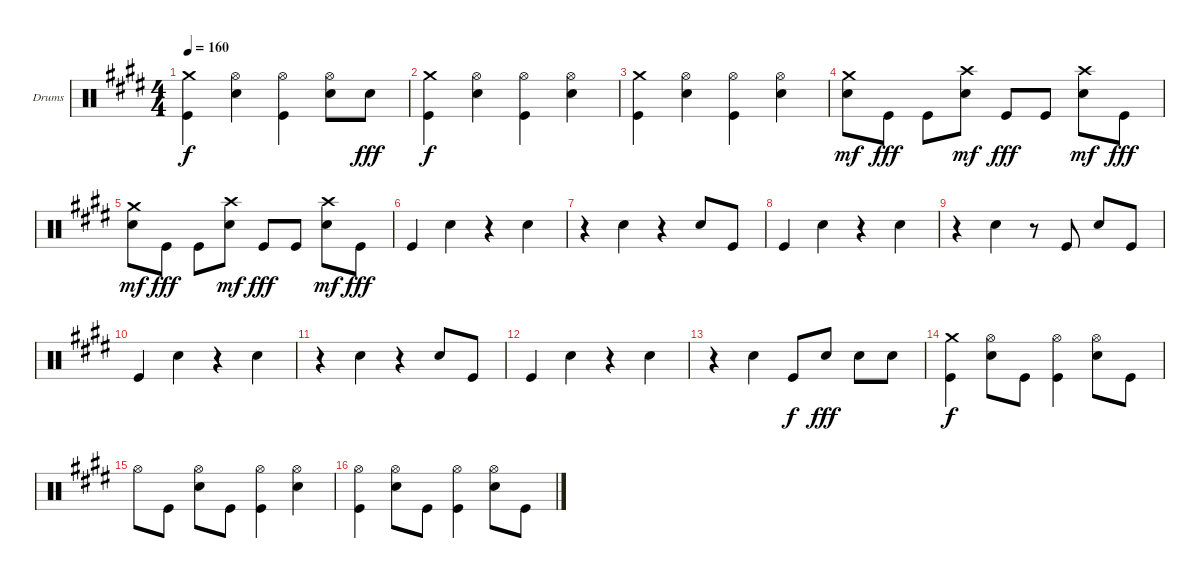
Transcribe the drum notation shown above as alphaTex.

\bracketExtendMode groupsimilarinstruments
\firstSystemTrackNameOrientation horizontal
\otherSystemsTrackNameOrientation horizontal
\track ("Drumkit" "Drums") {instrument percussion}
\staff {score}
\articulation defaults
\ts (4 4)
\tempo 160
\clef neutral
\ks e
("Crash medium (hit)" "Kick (hit)").4{dy f} ("Hi-Hat (open)" "Snare (hit) 2").4 ("Hi-Hat (open)" "Kick (hit)").4 ("Hi-Hat (open)" "Snare (hit) 2").8 "Snare (hit) 2".8{dy fff} |
("Crash medium (hit)" "Kick (hit)").4{dy f} ("Hi-Hat (open)" "Snare (hit) 2").4 ("Hi-Hat (open)" "Kick (hit)").4 ("Hi-Hat (open)" "Snare (hit) 2").4 |
("Crash medium (hit)" "Kick (hit)").4 ("Hi-Hat (open)" "Snare (hit) 2").4 ("Hi-Hat (open)" "Kick (hit)").4 ("Hi-Hat (open)" "Snare (hit) 2").4 |
("Crash medium (hit)" "Snare (hit) 2").8{dy mf} "Kick (hit)".8{dy fff} "Kick (hit)".8 ("Crash high (hit)" "Snare (hit) 2").8{dy mf} "Kick (hit)".8{dy fff} "Kick (hit)".8 ("Crash high (hit)" "Snare (hit) 2").8{dy mf} "Kick (hit)".8{dy fff} |
("Crash medium (hit)" "Snare (hit) 2").8{dy mf} "Kick (hit)".8{dy fff} "Kick (hit)".8 ("Crash high (hit)" "Snare (hit) 2").8{dy mf} "Kick (hit)".8{dy fff} "Kick (hit)".8 ("Crash high (hit)" "Snare (hit) 2").8{dy mf} "Kick (hit)".8{dy fff} |
"Kick (hit)".4 "Snare (hit) 2".4 r.4 "Snare (hit) 2".4 |
r.4 "Snare (hit) 2".4 r.4 "Snare (hit) 2".8 "Kick (hit)".8 |
"Kick (hit)".4 "Snare (hit) 2".4 r.4 "Snare (hit) 2".4 |
r.4 "Snare (hit) 2".4 r.8 "Kick (hit)".8 "Snare (hit) 2".8 "Kick (hit)".8 |
"Kick (hit)".4 "Snare (hit) 2".4 r.4 "Snare (hit) 2".4 |
r.4 "Snare (hit) 2".4 r.4 "Snare (hit) 2".8 "Kick (hit)".8 |
"Kick (hit)".4 "Snare (hit) 2".4 r.4 "Snare (hit) 2".4 |
r.4 "Snare (hit) 2".4 "Kick (hit)".8{dy f} "Snare (hit) 2".8{dy fff} "Snare (hit) 2".8 "Snare (hit) 2".8 |
("Crash medium (hit)" "Kick (hit)").4{dy f} ("Hi-Hat (open)" "Snare (hit) 2").8 "Kick (hit)".8 ("Hi-Hat (open)" "Kick (hit)").4 ("Hi-Hat (open)" "Snare (hit) 2").8 "Kick (hit)".8 |
"Hi-Hat (open)".8 "Kick (hit)".8 ("Hi-Hat (open)" "Snare (hit) 2").8 "Kick (hit)".8 ("Hi-Hat (open)" "Kick (hit)").4 ("Hi-Hat (open)" "Snare (hit) 2").4 |
("Hi-Hat (open)" "Kick (hit)").4 ("Hi-Hat (open)" "Snare (hit) 2").8 "Kick (hit)".8 ("Hi-Hat (open)" "Kick (hit)").4 ("Hi-Hat (open)" "Snare (hit) 2").8 "Kick (hit)".8
